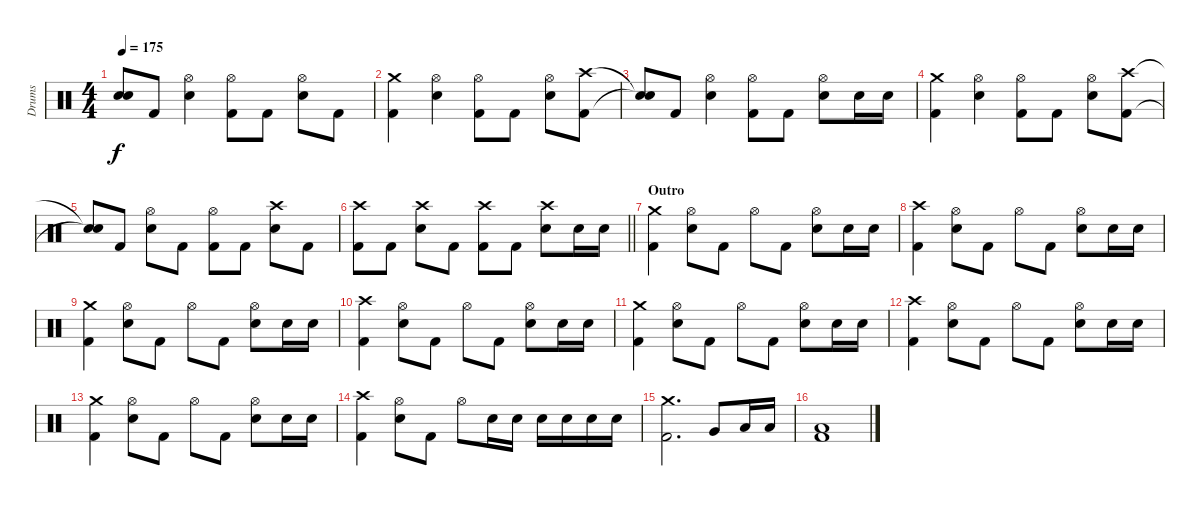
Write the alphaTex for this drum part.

\track ("Drums" "Drums") {instrument percussion}
\staff {score}
\articulation defaults
\ts (4 4)
\tempo 175
\clef neutral
\ks c
("Snare (hit)"{t} "Snare (hit)"{t}).8{dy f} "Kick (hit) 2".8 ("Hi-Hat (open)" "Electric Snare (hit)").4 ("Hi-Hat (open)" "Kick (hit) 2").8 "Kick (hit) 2".8 ("Hi-Hat (open)" "Electric Snare (hit)").8 "Kick (hit) 2".8 |
("Crash medium (hit)" "Kick (hit) 2").4 ("Hi-Hat (open)" "Electric Snare (hit)").4 ("Hi-Hat (open)" "Kick (hit) 2").8 "Kick (hit) 2".8 ("Hi-Hat (open)" "Electric Snare (hit)").8 ("Crash high (hit)" "Kick (hit) 2").8 |
("Snare (hit)"{t} "Snare (hit)"{t}).8 "Kick (hit) 2".8 ("Hi-Hat (open)" "Electric Snare (hit)").4 ("Hi-Hat (open)" "Kick (hit) 2").8 "Kick (hit) 2".8 ("Hi-Hat (open)" "Electric Snare (hit)").8 "Electric Snare (hit)".16 "Electric Snare (hit)".16 |
("Crash medium (hit)" "Kick (hit) 2").4 ("Hi-Hat (open)" "Electric Snare (hit)").4 ("Hi-Hat (open)" "Kick (hit) 2").8 "Kick (hit) 2".8 ("Hi-Hat (open)" "Electric Snare (hit)").8 ("Crash high (hit)" "Kick (hit) 2").8 |
("Snare (hit)"{t} "Snare (hit)"{t}).8 "Kick (hit) 2".8 ("Hi-Hat (open)" "Electric Snare (hit)").8 "Kick (hit) 2".8 ("Hi-Hat (open)" "Kick (hit) 2").8 "Kick (hit) 2".8 ("Crash high (hit)" "Electric Snare (hit)").8 "Kick (hit) 2".8 |
\barLineRight lightlight
("Crash high (hit)" "Kick (hit) 2").8 "Kick (hit) 2".8 ("Crash high (hit)" "Electric Snare (hit)").8 "Kick (hit) 2".8 ("Crash high (hit)" "Kick (hit) 2").8 "Kick (hit) 2".8 ("Crash high (hit)" "Electric Snare (hit)").8 "Electric Snare (hit)".16 "Electric Snare (hit)".16 |
\section ("" "Outro")
("Crash medium (hit)" "Kick (hit) 2").4 ("Hi-Hat (open)" "Electric Snare (hit)").8 "Kick (hit) 2".8 "Hi-Hat (open)".8 "Kick (hit) 2".8 ("Hi-Hat (open)" "Electric Snare (hit)").8 "Electric Snare (hit)".16 "Electric Snare (hit)".16 |
("Crash high (hit)" "Kick (hit) 2").4 ("Hi-Hat (open)" "Electric Snare (hit)").8 "Kick (hit) 2".8 "Hi-Hat (open)".8 "Kick (hit) 2".8 ("Hi-Hat (open)" "Electric Snare (hit)").8 "Electric Snare (hit)".16 "Electric Snare (hit)".16 |
("Crash medium (hit)" "Kick (hit) 2").4 ("Hi-Hat (open)" "Electric Snare (hit)").8 "Kick (hit) 2".8 "Hi-Hat (open)".8 "Kick (hit) 2".8 ("Hi-Hat (open)" "Electric Snare (hit)").8 "Electric Snare (hit)".16 "Electric Snare (hit)".16 |
("Crash high (hit)" "Kick (hit) 2").4 ("Hi-Hat (open)" "Electric Snare (hit)").8 "Kick (hit) 2".8 "Hi-Hat (open)".8 "Kick (hit) 2".8 ("Hi-Hat (open)" "Electric Snare (hit)").8 "Electric Snare (hit)".16 "Electric Snare (hit)".16 |
("Crash medium (hit)" "Kick (hit) 2").4 ("Hi-Hat (open)" "Electric Snare (hit)").8 "Kick (hit) 2".8 "Hi-Hat (open)".8 "Kick (hit) 2".8 ("Hi-Hat (open)" "Electric Snare (hit)").8 "Electric Snare (hit)".16 "Electric Snare (hit)".16 |
("Crash high (hit)" "Kick (hit) 2").4 ("Hi-Hat (open)" "Electric Snare (hit)").8 "Kick (hit) 2".8 "Hi-Hat (open)".8 "Kick (hit) 2".8 ("Hi-Hat (open)" "Electric Snare (hit)").8 "Electric Snare (hit)".16 "Electric Snare (hit)".16 |
("Crash medium (hit)" "Kick (hit) 2").4 ("Hi-Hat (open)" "Electric Snare (hit)").8 "Kick (hit) 2".8 "Hi-Hat (open)".8 "Kick (hit) 2".8 ("Hi-Hat (open)" "Electric Snare (hit)").8 "Electric Snare (hit)".16 "Electric Snare (hit)".16 |
("Crash high (hit)" "Kick (hit) 2").4 ("Hi-Hat (open)" "Electric Snare (hit)").8 "Kick (hit) 2".8 "Hi-Hat (open)".8 "Electric Snare (hit)".16 "Electric Snare (hit)".16 "Electric Snare (hit)".16 "Electric Snare (hit)".16 "Electric Snare (hit)".16 "Electric Snare (hit)".16 |
("Crash medium (hit)" "Kick (hit) 2").2{d} "Very Low Tom (hit)".8 "Low Floor Tom (hit)".16 "Low Floor Tom (hit)".16 |
("Low Floor Tom (hit)" "Kick (hit) 2").1
